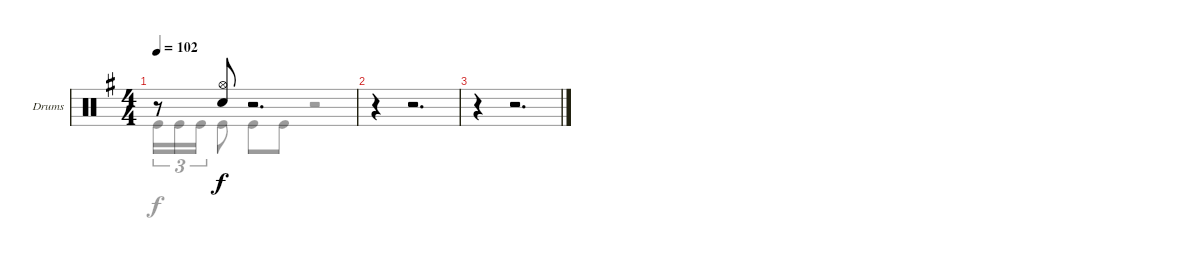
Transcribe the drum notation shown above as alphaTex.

\bracketExtendMode groupsimilarinstruments
\firstSystemTrackNameOrientation horizontal
\otherSystemsTrackNameOrientation horizontal
\track ("Drumkit" "Drums") {instrument percussion}
\staff {score}
\articulation defaults
\voice
\ts (4 4)
\tempo 102
\clef neutral
\ks g
r.8{dy f} ("Hi-Hat (open)" "Snare (hit) 2").8 r.2{d} |
r.4 r.2{d} |
r.4 r.2{d}
\voice
\clef neutral
\ottava regular
\simile none
\ks g "Kick (hit)".16{tu (3 2) dy f} "Kick (hit)".16{tu (3 2)} "Kick (hit)".16{tu (3 2)} "Kick (hit)".8 "Kick (hit)".8 "Kick (hit)".8
r.2 |
|
